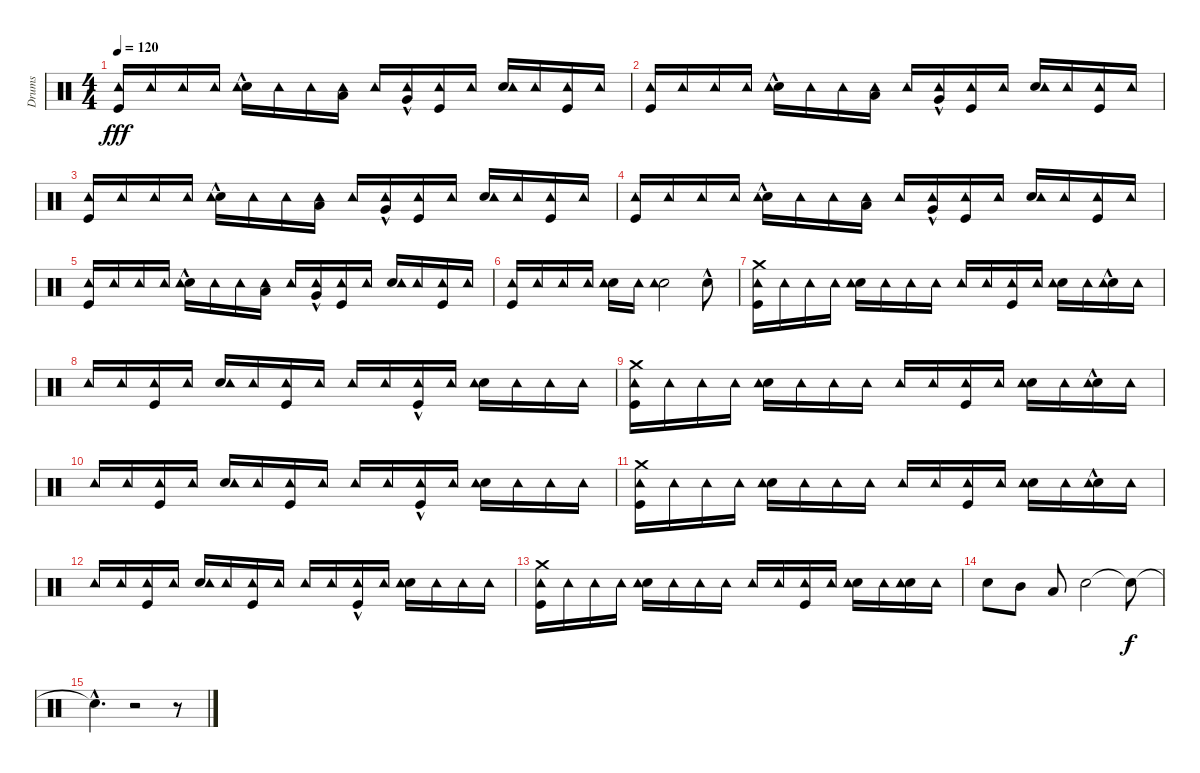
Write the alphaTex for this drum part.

\track ("Drums" "Drums") {instrument percussion}
\staff {score}
\articulation defaults
\ts (4 4)
\tempo 120
\clef neutral
\ks c
("Kick (hit)" "Tambourine (hit)").16{dy fff} "Tambourine (hit)".16 "Tambourine (hit)".16 "Tambourine (hit)".16 ("Snare (hit) 2"{hac} "Tambourine (hit)").16 "Tambourine (hit)".16 "Tambourine (hit)".16 ("Low Tom (hit)" "Tambourine (hit)").16 "Tambourine (hit)".16 ("Very Low Tom (hit)"{hac} "Tambourine (hit)").16 ("Kick (hit)" "Tambourine (hit)").16 "Tambourine (hit)".16 ("Snare (hit) 2" "Tambourine (hit)").16 "Tambourine (hit)".16 ("Kick (hit)" "Tambourine (hit)").16 "Tambourine (hit)".16 |
("Kick (hit)" "Tambourine (hit)").16 "Tambourine (hit)".16 "Tambourine (hit)".16 "Tambourine (hit)".16 ("Snare (hit) 2"{hac} "Tambourine (hit)").16 "Tambourine (hit)".16 "Tambourine (hit)".16 ("Low Tom (hit)" "Tambourine (hit)").16 "Tambourine (hit)".16 ("Very Low Tom (hit)"{hac} "Tambourine (hit)").16 ("Kick (hit)" "Tambourine (hit)").16 "Tambourine (hit)".16 ("Snare (hit) 2" "Tambourine (hit)").16 "Tambourine (hit)".16 ("Kick (hit)" "Tambourine (hit)").16 "Tambourine (hit)".16 |
("Kick (hit)" "Tambourine (hit)").16 "Tambourine (hit)".16 "Tambourine (hit)".16 "Tambourine (hit)".16 ("Snare (hit) 2"{hac} "Tambourine (hit)").16 "Tambourine (hit)".16 "Tambourine (hit)".16 ("Low Tom (hit)" "Tambourine (hit)").16 "Tambourine (hit)".16 ("Very Low Tom (hit)"{hac} "Tambourine (hit)").16 ("Kick (hit)" "Tambourine (hit)").16 "Tambourine (hit)".16 ("Snare (hit) 2" "Tambourine (hit)").16 "Tambourine (hit)".16 ("Kick (hit)" "Tambourine (hit)").16 "Tambourine (hit)".16 |
("Kick (hit)" "Tambourine (hit)").16 "Tambourine (hit)".16 "Tambourine (hit)".16 "Tambourine (hit)".16 ("Snare (hit) 2"{hac} "Tambourine (hit)").16 "Tambourine (hit)".16 "Tambourine (hit)".16 ("Low Tom (hit)" "Tambourine (hit)").16 "Tambourine (hit)".16 ("Very Low Tom (hit)"{hac} "Tambourine (hit)").16 ("Kick (hit)" "Tambourine (hit)").16 "Tambourine (hit)".16 ("Snare (hit) 2" "Tambourine (hit)").16 "Tambourine (hit)".16 ("Kick (hit)" "Tambourine (hit)").16 "Tambourine (hit)".16 |
("Kick (hit)" "Tambourine (hit)").16 "Tambourine (hit)".16 "Tambourine (hit)".16 "Tambourine (hit)".16 ("Snare (hit) 2"{hac} "Tambourine (hit)").16 "Tambourine (hit)".16 "Tambourine (hit)".16 ("Low Tom (hit)" "Tambourine (hit)").16 "Tambourine (hit)".16 ("Very Low Tom (hit)"{hac} "Tambourine (hit)").16 ("Kick (hit)" "Tambourine (hit)").16 "Tambourine (hit)".16 ("Snare (hit) 2" "Tambourine (hit)").16 "Tambourine (hit)".16 ("Kick (hit)" "Tambourine (hit)").16 "Tambourine (hit)".16 |
("Kick (hit)" "Tambourine (hit)").16 "Tambourine (hit)".16 "Tambourine (hit)".16 "Tambourine (hit)".16 ("Snare (hit) 2" "Tambourine (hit)").16 "Tambourine (hit)".16 ("Snare (hit) 2" "Tambourine (hit)").2 "Snare (hit) 2"{hac}.8 |
("Kick (hit)" "Tambourine (hit)" "Crash medium (hit)").16 "Tambourine (hit)".16 "Tambourine (hit)".16 "Tambourine (hit)".16 ("Snare (hit) 2" "Tambourine (hit)").16 "Tambourine (hit)".16 "Tambourine (hit)".16 "Tambourine (hit)".16 "Tambourine (hit)".16 "Tambourine (hit)".16 ("Kick (hit)" "Tambourine (hit)").16 "Tambourine (hit)".16 ("Snare (hit) 2" "Tambourine (hit)").16 "Tambourine (hit)".16 ("Snare (hit) 2"{hac} "Tambourine (hit)").16 "Tambourine (hit)".16 |
"Tambourine (hit)".16 "Tambourine (hit)".16 ("Kick (hit)" "Tambourine (hit)").16 "Tambourine (hit)".16 ("Snare (hit) 2" "Tambourine (hit)").16 "Tambourine (hit)".16 ("Kick (hit)" "Tambourine (hit)").16 "Tambourine (hit)".16 "Tambourine (hit)".16 "Tambourine (hit)".16 ("Kick (hit)"{hac} "Tambourine (hit)").16 "Tambourine (hit)".16 ("Snare (hit) 2" "Tambourine (hit)").16 "Tambourine (hit)".16 "Tambourine (hit)".16 "Tambourine (hit)".16 |
("Kick (hit)" "Tambourine (hit)" "Crash medium (hit)").16 "Tambourine (hit)".16 "Tambourine (hit)".16 "Tambourine (hit)".16 ("Snare (hit) 2" "Tambourine (hit)").16 "Tambourine (hit)".16 "Tambourine (hit)".16 "Tambourine (hit)".16 "Tambourine (hit)".16 "Tambourine (hit)".16 ("Kick (hit)" "Tambourine (hit)").16 "Tambourine (hit)".16 ("Snare (hit) 2" "Tambourine (hit)").16 "Tambourine (hit)".16 ("Snare (hit) 2"{hac} "Tambourine (hit)").16 "Tambourine (hit)".16 |
"Tambourine (hit)".16 "Tambourine (hit)".16 ("Kick (hit)" "Tambourine (hit)").16 "Tambourine (hit)".16 ("Snare (hit) 2" "Tambourine (hit)").16 "Tambourine (hit)".16 ("Kick (hit)" "Tambourine (hit)").16 "Tambourine (hit)".16 "Tambourine (hit)".16 "Tambourine (hit)".16 ("Kick (hit)"{hac} "Tambourine (hit)").16 "Tambourine (hit)".16 ("Snare (hit) 2" "Tambourine (hit)").16 "Tambourine (hit)".16 "Tambourine (hit)".16 "Tambourine (hit)".16 |
("Kick (hit)" "Tambourine (hit)" "Crash medium (hit)").16 "Tambourine (hit)".16 "Tambourine (hit)".16 "Tambourine (hit)".16 ("Snare (hit) 2" "Tambourine (hit)").16 "Tambourine (hit)".16 "Tambourine (hit)".16 "Tambourine (hit)".16 "Tambourine (hit)".16 "Tambourine (hit)".16 ("Kick (hit)" "Tambourine (hit)").16 "Tambourine (hit)".16 ("Snare (hit) 2" "Tambourine (hit)").16 "Tambourine (hit)".16 ("Snare (hit) 2"{hac} "Tambourine (hit)").16 "Tambourine (hit)".16 |
"Tambourine (hit)".16 "Tambourine (hit)".16 ("Kick (hit)" "Tambourine (hit)").16 "Tambourine (hit)".16 ("Snare (hit) 2" "Tambourine (hit)").16 "Tambourine (hit)".16 ("Kick (hit)" "Tambourine (hit)").16 "Tambourine (hit)".16 "Tambourine (hit)".16 "Tambourine (hit)".16 ("Kick (hit)"{hac} "Tambourine (hit)").16 "Tambourine (hit)".16 ("Snare (hit) 2" "Tambourine (hit)").16 "Tambourine (hit)".16 "Tambourine (hit)".16 "Tambourine (hit)".16 |
("Kick (hit)" "Tambourine (hit)" "Crash medium (hit)").16 "Tambourine (hit)".16 "Tambourine (hit)".16 "Tambourine (hit)".16 ("Snare (hit) 2" "Tambourine (hit)").16 "Tambourine (hit)".16 "Tambourine (hit)".16 "Tambourine (hit)".16 "Tambourine (hit)".16 "Tambourine (hit)".16 ("Kick (hit)" "Tambourine (hit)").16 "Tambourine (hit)".16 ("Snare (hit) 2" "Tambourine (hit)").16 "Tambourine (hit)".16 ("Snare (hit) 2" "Tambourine (hit)").16 "Tambourine (hit)".16 |
"Snare (hit) 2".8 "Mid Tom (hit)".8 "Low Tom (hit)".8 "Snare (hit) 2".2 "Snare (hit)"{t}.8{dy f} |
"Snare (hit)"{hac t}.4{d} r.2 r.8
